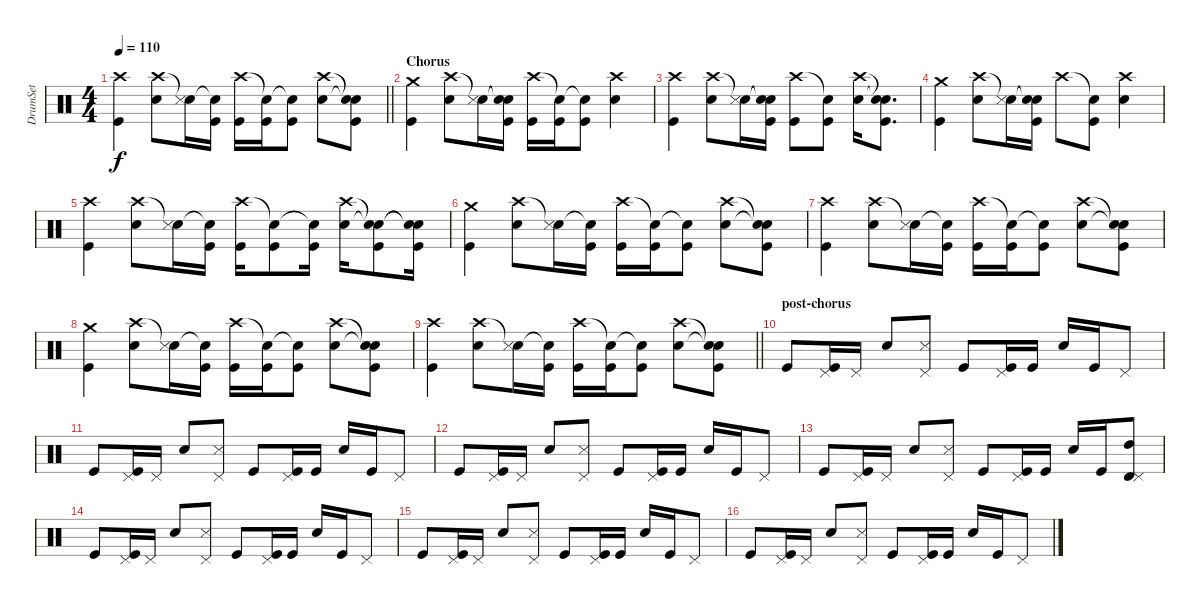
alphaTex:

\track ("DrumSet" "DrumSet") {instrument percussion}
\staff {score}
\articulation defaults
\ts (4 4)
\tempo 110
\clef neutral
\barLineRight lightlight
\ks c
("Crash high (hit)" "Kick (hit)").4{dy f} ("Crash high (hit)" "Snare (hit) 2").8 ("Snare (hit)"{t} "Snare (side stick) 3").16 ("Snare (hit)"{t} "Kick (hit)").16 ("Crash high (hit)" "Kick (hit)").16 ("Snare (hit)"{t} "Kick (hit)").16 ("Snare (hit)"{t} "Kick (hit)").8 ("Crash high (hit)" "Snare (hit) 2").8 ("Snare (hit)"{t} "Snare (hit)"{t} "Kick (hit)").8 |
\section ("" "Chorus")
("Crash medium (hit)" "Kick (hit)").4 ("Crash high (hit)" "Snare (hit) 2").8 ("Snare (hit)"{t} "Snare (side stick) 3").16 ("Snare (hit)"{t} "Snare (hit)"{t} "Kick (hit)").16 ("Crash high (hit)" "Kick (hit)").16 ("Snare (hit)"{t} "Kick (hit)").16 ("Snare (hit)"{t} "Kick (hit)").8 ("Crash high (hit)" "Snare (hit) 2").4 |
("Crash high (hit)" "Kick (hit)").4 ("Crash high (hit)" "Snare (hit) 2").8 ("Snare (hit)"{t} "Snare (side stick) 3").16 ("Snare (hit)"{t} "Snare (hit)"{t} "Kick (hit)").16 ("Crash high (hit)" "Kick (hit)").8 ("Snare (hit)"{t} "Kick (hit)").8 ("Crash high (hit)" "Snare (hit) 2").16 ("Snare (hit)"{t} "Snare (hit)"{t} "Kick (hit)").8{d} |
("Crash medium (hit)" "Kick (hit)").4 ("Crash high (hit)" "Snare (hit) 2").8 ("Snare (hit)"{t} "Snare (side stick) 3").16 ("Snare (hit)"{t} "Snare (hit)"{t} "Kick (hit)").16 "Crash high (hit)".8 ("Snare (hit)"{t} "Kick (hit)").8 ("Crash high (hit)" "Snare (hit) 2").4 |
("Crash high (hit)" "Kick (hit)").4 ("Crash high (hit)" "Snare (hit) 2").8 ("Snare (hit)"{t} "Snare (side stick) 3").16 ("Snare (hit)"{t} "Kick (hit)").16 ("Crash high (hit)" "Kick (hit)").16 ("Snare (hit)"{t} "Kick (hit)").8 ("Snare (hit)"{t} "Kick (hit)").16 ("Crash high (hit)" "Snare (hit) 2").16 ("Snare (hit)"{t} "Snare (hit)"{t} "Kick (hit)").8 ("Snare (hit)"{t} "Snare (hit)"{t} "Kick (hit)").16 |
("Crash medium (hit)" "Kick (hit)").4 ("Crash high (hit)" "Snare (hit) 2").8 ("Snare (hit)"{t} "Snare (side stick) 3").16 ("Snare (hit)"{t} "Kick (hit)").16 ("Crash high (hit)" "Kick (hit)").16 ("Snare (hit)"{t} "Kick (hit)").16 ("Snare (hit)"{t} "Kick (hit)").8 ("Crash high (hit)" "Snare (hit) 2").8 ("Snare (hit)"{t} "Snare (hit)"{t} "Kick (hit)").8 |
("Crash high (hit)" "Kick (hit)").4 ("Crash high (hit)" "Snare (hit) 2").8 ("Snare (hit)"{t} "Snare (side stick) 3").16 ("Snare (hit)"{t} "Kick (hit)").16 ("Crash high (hit)" "Kick (hit)").16 ("Snare (hit)"{t} "Kick (hit)").16 ("Snare (hit)"{t} "Kick (hit)").8 ("Crash high (hit)" "Snare (hit) 2").8 ("Snare (hit)"{t} "Snare (hit)"{t} "Kick (hit)").8 |
("Crash medium (hit)" "Kick (hit)").4 ("Crash high (hit)" "Snare (hit) 2").8 ("Snare (hit)"{t} "Snare (side stick) 3").16 ("Snare (hit)"{t} "Kick (hit)").16 ("Crash high (hit)" "Kick (hit)").16 ("Snare (hit)"{t} "Kick (hit)").16 ("Snare (hit)"{t} "Kick (hit)").8 ("Crash high (hit)" "Snare (hit) 2").8 ("Snare (hit)"{t} "Snare (hit)"{t} "Kick (hit)").8 |
\barLineRight lightlight
("Crash high (hit)" "Kick (hit)").4 ("Crash high (hit)" "Snare (hit) 2").8 ("Snare (hit)"{t} "Snare (side stick) 3").16 ("Snare (hit)"{t} "Kick (hit)").16 ("Crash high (hit)" "Kick (hit)").16 ("Snare (hit)"{t} "Kick (hit)").16 ("Snare (hit)"{t} "Kick (hit)").8 ("Crash high (hit)" "Snare (hit) 2").8 ("Snare (hit)"{t} "Snare (hit)"{t} "Kick (hit)").8 |
\section ("" "post-chorus")
"Kick (hit)".8 ("Pedal Hi-Hat (hit)" "Kick (hit)").16 "Pedal Hi-Hat (hit)".16 "Snare (hit) 2".8 ("Snare (side stick) 3" "Pedal Hi-Hat (hit)").8 "Kick (hit)".8 ("Pedal Hi-Hat (hit)" "Kick (hit)").16 "Kick (hit)".16 "Snare (hit) 2".16 "Kick (hit)".16 "Pedal Hi-Hat (hit)".8 |
"Kick (hit)".8 ("Pedal Hi-Hat (hit)" "Kick (hit)").16 "Pedal Hi-Hat (hit)".16 "Snare (hit) 2".8 ("Snare (side stick) 3" "Pedal Hi-Hat (hit)").8 "Kick (hit)".8 ("Pedal Hi-Hat (hit)" "Kick (hit)").16 "Kick (hit)".16 "Snare (hit) 2".16 "Kick (hit)".16 "Pedal Hi-Hat (hit)".8 |
"Kick (hit)".8 ("Pedal Hi-Hat (hit)" "Kick (hit)").16 "Pedal Hi-Hat (hit)".16 "Snare (hit) 2".8 ("Snare (side stick) 3" "Pedal Hi-Hat (hit)").8 "Kick (hit)".8 ("Pedal Hi-Hat (hit)" "Kick (hit)").16 "Kick (hit)".16 "Snare (hit) 2".16 "Kick (hit)".16 "Pedal Hi-Hat (hit)".8 |
"Kick (hit)".8 ("Pedal Hi-Hat (hit)" "Kick (hit)").16 "Pedal Hi-Hat (hit)".16 "Snare (hit) 2".8 ("Snare (side stick) 3" "Pedal Hi-Hat (hit)").8 "Kick (hit)".8 ("Pedal Hi-Hat (hit)" "Kick (hit)").16 "Kick (hit)".16 "Snare (hit) 2".16 "Kick (hit)".16 ("High Tom (hit)" "Timbale high (hit)" "Pedal Hi-Hat (hit)").8 |
"Kick (hit)".8 ("Pedal Hi-Hat (hit)" "Kick (hit)").16 "Pedal Hi-Hat (hit)".16 "Snare (hit) 2".8 ("Snare (side stick) 3" "Pedal Hi-Hat (hit)").8 "Kick (hit)".8 ("Pedal Hi-Hat (hit)" "Kick (hit)").16 "Kick (hit)".16 "Snare (hit) 2".16 "Kick (hit)".16 "Pedal Hi-Hat (hit)".8 |
"Kick (hit)".8 ("Pedal Hi-Hat (hit)" "Kick (hit)").16 "Pedal Hi-Hat (hit)".16 "Snare (hit) 2".8 ("Snare (side stick) 3" "Pedal Hi-Hat (hit)").8 "Kick (hit)".8 ("Pedal Hi-Hat (hit)" "Kick (hit)").16 "Kick (hit)".16 "Snare (hit) 2".16 "Kick (hit)".16 "Pedal Hi-Hat (hit)".8 |
"Kick (hit)".8 ("Pedal Hi-Hat (hit)" "Kick (hit)").16 "Pedal Hi-Hat (hit)".16 "Snare (hit) 2".8 ("Snare (side stick) 3" "Pedal Hi-Hat (hit)").8 "Kick (hit)".8 ("Pedal Hi-Hat (hit)" "Kick (hit)").16 "Kick (hit)".16 "Snare (hit) 2".16 "Kick (hit)".16 "Pedal Hi-Hat (hit)".8
